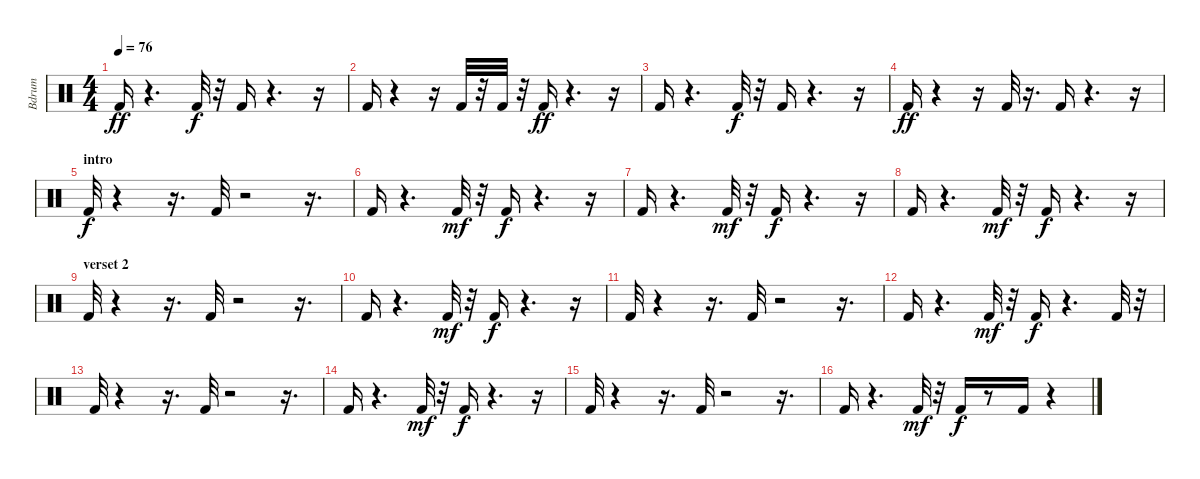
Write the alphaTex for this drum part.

\track ("Bdrum" "Bdrum") {instrument percussion}
\staff {score}
\articulation defaults
\ts (4 4)
\tempo 76
\clef neutral
\ks c "Kick (hit) 2".16{dy ff}
r.4{d} "Kick (hit) 2".32{dy f} r.32 "Kick (hit) 2".16 r.4{d} r.16 |
"Kick (hit) 2".16 r.4 r.16 "Kick (hit) 2".32 r.32 "Kick (hit) 2".32 r.32 "Kick (hit) 2".16{dy ff} r.4{d} r.16 |
"Kick (hit) 2".16 r.4{d} "Kick (hit) 2".32{dy f} r.32 "Kick (hit) 2".16 r.4{d} r.16 |
"Kick (hit) 2".16{dy ff} r.4 r.16 "Kick (hit) 2".32 r.16{d} "Kick (hit) 2".16 r.4{d} r.16 |
\section ("" "intro")
"Kick (hit) 2".32{dy f} r.4 r.16{d} "Kick (hit) 2".32 r.2 r.16{d} |
"Kick (hit) 2".16 r.4{d} "Kick (hit) 2".32{dy mf} r.32 "Kick (hit) 2".16{dy f} r.4{d} r.16 |
"Kick (hit) 2".16 r.4{d} "Kick (hit) 2".32{dy mf} r.32 "Kick (hit) 2".16{dy f} r.4{d} r.16 |
"Kick (hit) 2".16 r.4{d} "Kick (hit) 2".32{dy mf} r.32 "Kick (hit) 2".16{dy f} r.4{d} r.16 |
\section ("" "verset 2")
"Kick (hit) 2".32 r.4 r.16{d} "Kick (hit) 2".32 r.2 r.16{d} |
"Kick (hit) 2".16 r.4{d} "Kick (hit) 2".32{dy mf} r.32 "Kick (hit) 2".16{dy f} r.4{d} r.16 |
"Kick (hit) 2".32 r.4 r.16{d} "Kick (hit) 2".32 r.2 r.16{d} |
"Kick (hit) 2".16 r.4{d} "Kick (hit) 2".32{dy mf} r.32 "Kick (hit) 2".16{dy f} r.4{d} "Kick (hit) 2".32 r.32 |
"Kick (hit) 2".32 r.4 r.16{d} "Kick (hit) 2".32 r.2 r.16{d} |
"Kick (hit) 2".16 r.4{d} "Kick (hit) 2".32{dy mf} r.32 "Kick (hit) 2".16{dy f} r.4{d} r.16 |
"Kick (hit) 2".32 r.4 r.16{d} "Kick (hit) 2".32 r.2 r.16{d} |
"Kick (hit) 2".16 r.4{d} "Kick (hit) 2".32{dy mf} r.32 "Kick (hit) 2".16{dy f} r.8 "Kick (hit) 2".16 r.4
